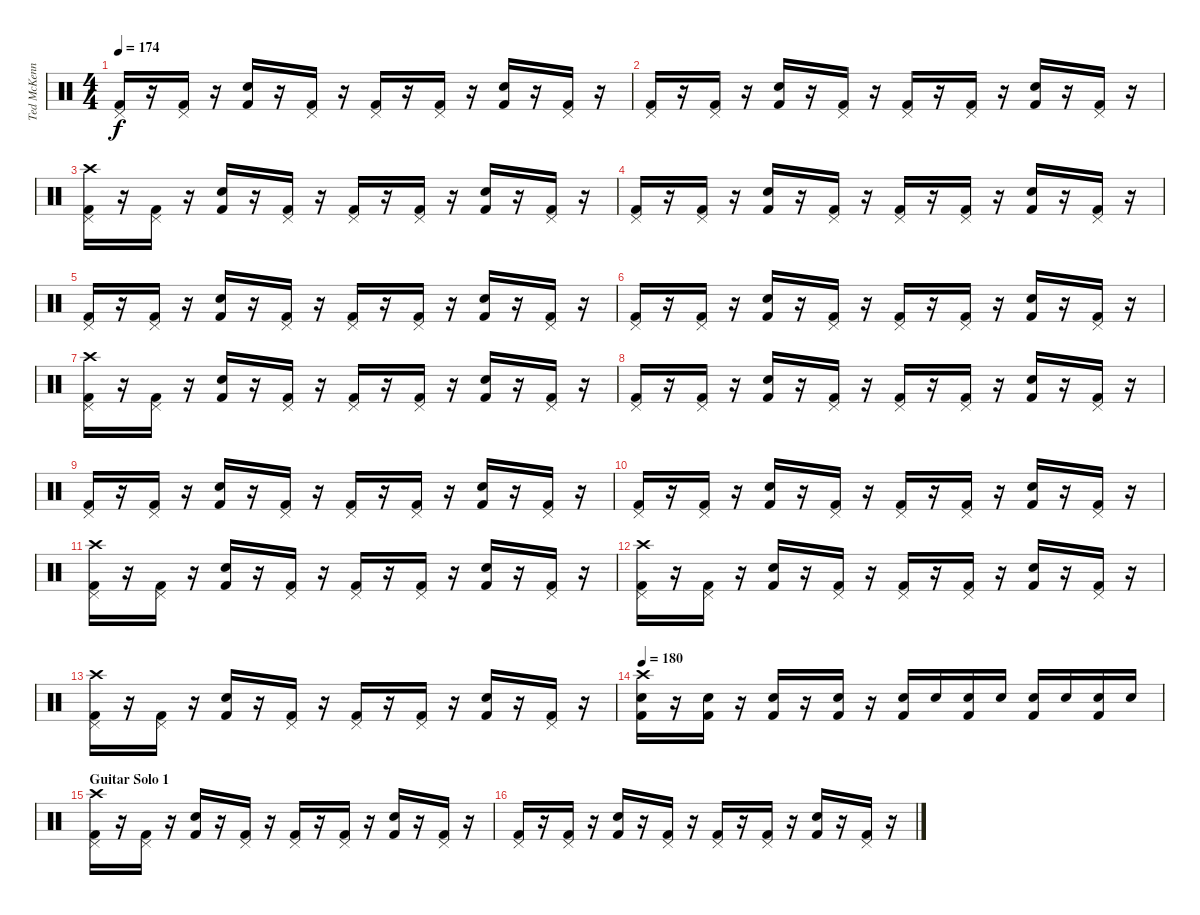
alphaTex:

\track ("Ted McKenna" "Ted McKenn") {instrument percussion}
\staff {score}
\articulation defaults
\ts (4 4)
\tempo 174
\clef neutral
\ks c
("Pedal Hi-Hat (hit)" "Kick (hit) 2").16{dy f} r.16 ("Pedal Hi-Hat (hit)" "Kick (hit) 2").16 r.16 ("Snare (hit) 2" "Kick (hit) 2").16 r.16 ("Pedal Hi-Hat (hit)" "Kick (hit) 2").16 r.16 ("Pedal Hi-Hat (hit)" "Kick (hit) 2").16 r.16 ("Pedal Hi-Hat (hit)" "Kick (hit) 2").16 r.16 ("Snare (hit) 2" "Kick (hit) 2").16 r.16 ("Pedal Hi-Hat (hit)" "Kick (hit) 2").16 r.16 |
("Pedal Hi-Hat (hit)" "Kick (hit) 2").16 r.16 ("Pedal Hi-Hat (hit)" "Kick (hit) 2").16 r.16 ("Snare (hit) 2" "Kick (hit) 2").16 r.16 ("Pedal Hi-Hat (hit)" "Kick (hit) 2").16 r.16 ("Pedal Hi-Hat (hit)" "Kick (hit) 2").16 r.16 ("Pedal Hi-Hat (hit)" "Kick (hit) 2").16 r.16 ("Snare (hit) 2" "Kick (hit) 2").16 r.16 ("Pedal Hi-Hat (hit)" "Kick (hit) 2").16 r.16 |
("Crash high (hit)" "Pedal Hi-Hat (hit)" "Kick (hit) 2").16 r.16 ("Pedal Hi-Hat (hit)" "Kick (hit) 2").16 r.16 ("Snare (hit) 2" "Kick (hit) 2").16 r.16 ("Pedal Hi-Hat (hit)" "Kick (hit) 2").16 r.16 ("Pedal Hi-Hat (hit)" "Kick (hit) 2").16 r.16 ("Pedal Hi-Hat (hit)" "Kick (hit) 2").16 r.16 ("Snare (hit) 2" "Kick (hit) 2").16 r.16 ("Pedal Hi-Hat (hit)" "Kick (hit) 2").16 r.16 |
("Pedal Hi-Hat (hit)" "Kick (hit) 2").16 r.16 ("Pedal Hi-Hat (hit)" "Kick (hit) 2").16 r.16 ("Snare (hit) 2" "Kick (hit) 2").16 r.16 ("Pedal Hi-Hat (hit)" "Kick (hit) 2").16 r.16 ("Pedal Hi-Hat (hit)" "Kick (hit) 2").16 r.16 ("Pedal Hi-Hat (hit)" "Kick (hit) 2").16 r.16 ("Snare (hit) 2" "Kick (hit) 2").16 r.16 ("Pedal Hi-Hat (hit)" "Kick (hit) 2").16 r.16 |
("Pedal Hi-Hat (hit)" "Kick (hit) 2").16 r.16 ("Pedal Hi-Hat (hit)" "Kick (hit) 2").16 r.16 ("Snare (hit) 2" "Kick (hit) 2").16 r.16 ("Pedal Hi-Hat (hit)" "Kick (hit) 2").16 r.16 ("Pedal Hi-Hat (hit)" "Kick (hit) 2").16 r.16 ("Pedal Hi-Hat (hit)" "Kick (hit) 2").16 r.16 ("Snare (hit) 2" "Kick (hit) 2").16 r.16 ("Pedal Hi-Hat (hit)" "Kick (hit) 2").16 r.16 |
("Pedal Hi-Hat (hit)" "Kick (hit) 2").16 r.16 ("Pedal Hi-Hat (hit)" "Kick (hit) 2").16 r.16 ("Snare (hit) 2" "Kick (hit) 2").16 r.16 ("Pedal Hi-Hat (hit)" "Kick (hit) 2").16 r.16 ("Pedal Hi-Hat (hit)" "Kick (hit) 2").16 r.16 ("Pedal Hi-Hat (hit)" "Kick (hit) 2").16 r.16 ("Snare (hit) 2" "Kick (hit) 2").16 r.16 ("Pedal Hi-Hat (hit)" "Kick (hit) 2").16 r.16 |
("Crash high (hit)" "Pedal Hi-Hat (hit)" "Kick (hit) 2").16 r.16 ("Pedal Hi-Hat (hit)" "Kick (hit) 2").16 r.16 ("Snare (hit) 2" "Kick (hit) 2").16 r.16 ("Pedal Hi-Hat (hit)" "Kick (hit) 2").16 r.16 ("Pedal Hi-Hat (hit)" "Kick (hit) 2").16 r.16 ("Pedal Hi-Hat (hit)" "Kick (hit) 2").16 r.16 ("Snare (hit) 2" "Kick (hit) 2").16 r.16 ("Pedal Hi-Hat (hit)" "Kick (hit) 2").16 r.16 |
("Pedal Hi-Hat (hit)" "Kick (hit) 2").16 r.16 ("Pedal Hi-Hat (hit)" "Kick (hit) 2").16 r.16 ("Snare (hit) 2" "Kick (hit) 2").16 r.16 ("Pedal Hi-Hat (hit)" "Kick (hit) 2").16 r.16 ("Pedal Hi-Hat (hit)" "Kick (hit) 2").16 r.16 ("Pedal Hi-Hat (hit)" "Kick (hit) 2").16 r.16 ("Snare (hit) 2" "Kick (hit) 2").16 r.16 ("Pedal Hi-Hat (hit)" "Kick (hit) 2").16 r.16 |
("Pedal Hi-Hat (hit)" "Kick (hit) 2").16 r.16 ("Pedal Hi-Hat (hit)" "Kick (hit) 2").16 r.16 ("Snare (hit) 2" "Kick (hit) 2").16 r.16 ("Pedal Hi-Hat (hit)" "Kick (hit) 2").16 r.16 ("Pedal Hi-Hat (hit)" "Kick (hit) 2").16 r.16 ("Pedal Hi-Hat (hit)" "Kick (hit) 2").16 r.16 ("Snare (hit) 2" "Kick (hit) 2").16 r.16 ("Pedal Hi-Hat (hit)" "Kick (hit) 2").16 r.16 |
("Pedal Hi-Hat (hit)" "Kick (hit) 2").16 r.16 ("Pedal Hi-Hat (hit)" "Kick (hit) 2").16 r.16 ("Snare (hit) 2" "Kick (hit) 2").16 r.16 ("Pedal Hi-Hat (hit)" "Kick (hit) 2").16 r.16 ("Pedal Hi-Hat (hit)" "Kick (hit) 2").16 r.16 ("Pedal Hi-Hat (hit)" "Kick (hit) 2").16 r.16 ("Snare (hit) 2" "Kick (hit) 2").16 r.16 ("Pedal Hi-Hat (hit)" "Kick (hit) 2").16 r.16 |
("Crash high (hit)" "Pedal Hi-Hat (hit)" "Kick (hit) 2").16 r.16 ("Pedal Hi-Hat (hit)" "Kick (hit) 2").16 r.16 ("Snare (hit) 2" "Kick (hit) 2").16 r.16 ("Pedal Hi-Hat (hit)" "Kick (hit) 2").16 r.16 ("Pedal Hi-Hat (hit)" "Kick (hit) 2").16 r.16 ("Pedal Hi-Hat (hit)" "Kick (hit) 2").16 r.16 ("Snare (hit) 2" "Kick (hit) 2").16 r.16 ("Pedal Hi-Hat (hit)" "Kick (hit) 2").16 r.16 |
("Crash high (hit)" "Pedal Hi-Hat (hit)" "Kick (hit) 2").16 r.16 ("Pedal Hi-Hat (hit)" "Kick (hit) 2").16 r.16 ("Snare (hit) 2" "Kick (hit) 2").16 r.16 ("Pedal Hi-Hat (hit)" "Kick (hit) 2").16 r.16 ("Pedal Hi-Hat (hit)" "Kick (hit) 2").16 r.16 ("Pedal Hi-Hat (hit)" "Kick (hit) 2").16 r.16 ("Snare (hit) 2" "Kick (hit) 2").16 r.16 ("Pedal Hi-Hat (hit)" "Kick (hit) 2").16 r.16 |
("Crash high (hit)" "Pedal Hi-Hat (hit)" "Kick (hit) 2").16 r.16 ("Pedal Hi-Hat (hit)" "Kick (hit) 2").16 r.16 ("Snare (hit) 2" "Kick (hit) 2").16 r.16 ("Pedal Hi-Hat (hit)" "Kick (hit) 2").16 r.16 ("Pedal Hi-Hat (hit)" "Kick (hit) 2").16 r.16 ("Pedal Hi-Hat (hit)" "Kick (hit) 2").16 r.16 ("Snare (hit) 2" "Kick (hit) 2").16 r.16 ("Pedal Hi-Hat (hit)" "Kick (hit) 2").16 r.16 |
\tempo 180
("Crash high (hit)" "Snare (hit) 2" "Kick (hit) 2").16 r.16 ("Snare (hit) 2" "Kick (hit) 2").16 r.16 ("Snare (hit) 2" "Kick (hit) 2").16 r.16 ("Snare (hit) 2" "Kick (hit) 2").16 r.16 ("Snare (hit) 2" "Kick (hit) 2").16 "Snare (hit) 2".16 ("Snare (hit) 2" "Kick (hit) 2").16 "Snare (hit) 2".16 ("Electric Snare (hit)" "Kick (hit) 2").16 "Electric Snare (hit)".16 ("Electric Snare (hit)" "Kick (hit) 2").16 "Electric Snare (hit)".16 |
\section ("" "Guitar Solo 1")
("Crash high (hit)" "Pedal Hi-Hat (hit)" "Kick (hit) 2").16 r.16 ("Pedal Hi-Hat (hit)" "Kick (hit) 2").16 r.16 ("Snare (hit) 2" "Kick (hit) 2").16 r.16 ("Pedal Hi-Hat (hit)" "Kick (hit) 2").16 r.16 ("Pedal Hi-Hat (hit)" "Kick (hit) 2").16 r.16 ("Pedal Hi-Hat (hit)" "Kick (hit) 2").16 r.16 ("Snare (hit) 2" "Kick (hit) 2").16 r.16 ("Pedal Hi-Hat (hit)" "Kick (hit) 2").16 r.16 |
("Pedal Hi-Hat (hit)" "Kick (hit) 2").16 r.16 ("Pedal Hi-Hat (hit)" "Kick (hit) 2").16 r.16 ("Snare (hit) 2" "Kick (hit) 2").16 r.16 ("Pedal Hi-Hat (hit)" "Kick (hit) 2").16 r.16 ("Pedal Hi-Hat (hit)" "Kick (hit) 2").16 r.16 ("Pedal Hi-Hat (hit)" "Kick (hit) 2").16 r.16 ("Snare (hit) 2" "Kick (hit) 2").16 r.16 ("Pedal Hi-Hat (hit)" "Kick (hit) 2").16 r.16
